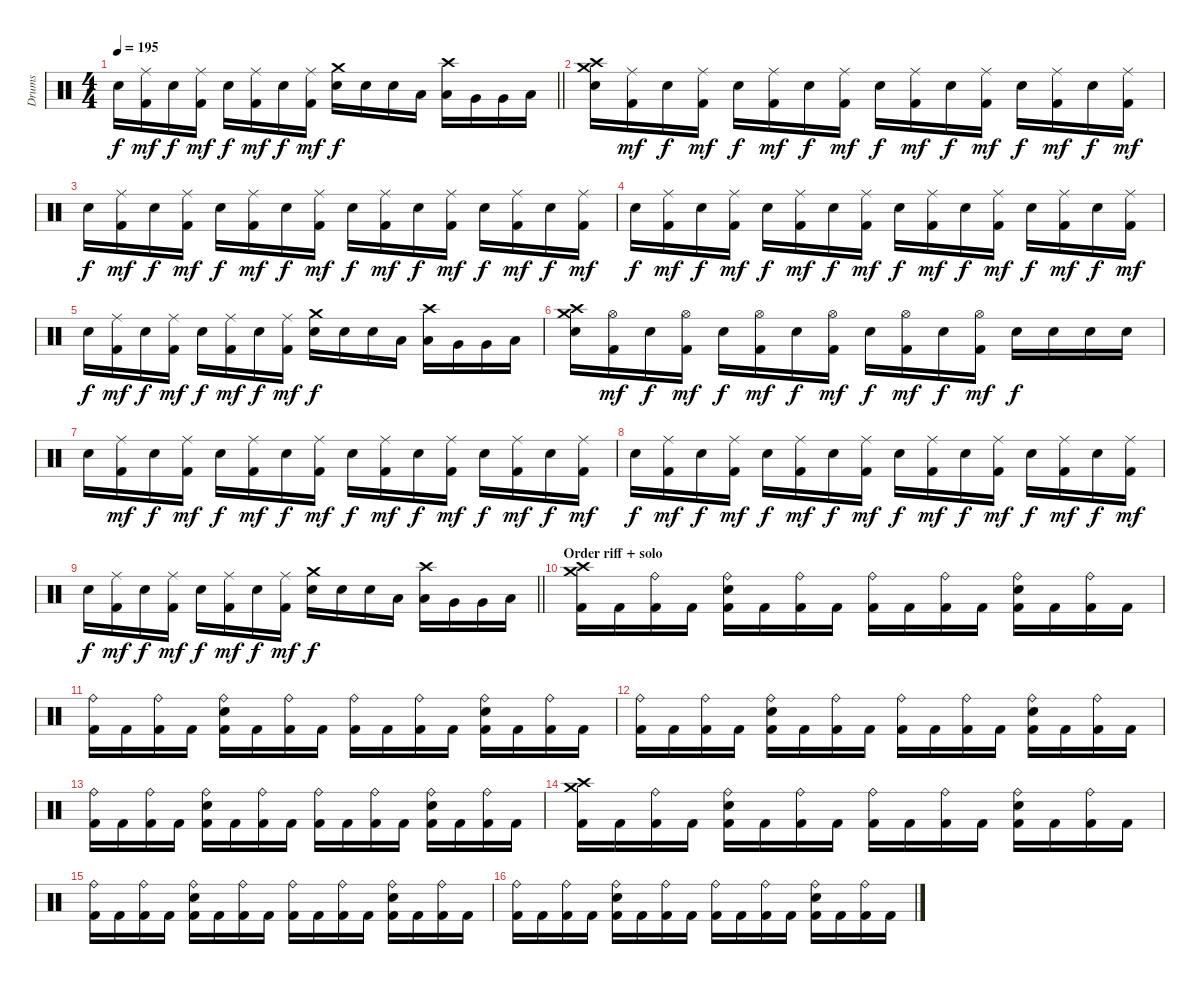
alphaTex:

\track ("Drums" "Drums") {instrument percussion}
\staff {score}
\articulation defaults
\ts (4 4)
\tempo 195
\clef neutral
\barLineRight lightlight
\ks c "Snare (hit) 2".16{dy f}
("Ride (middle)" "Kick (hit) 2").16{dy mf} "Snare (hit) 2".16{dy f} ("Ride (middle)" "Kick (hit) 2").16{dy mf} "Snare (hit) 2".16{dy f} ("Ride (middle)" "Kick (hit) 2").16{dy mf} "Snare (hit) 2".16{dy f} ("Ride (middle)" "Kick (hit) 2").16{dy mf} ("Crash medium (hit)" "Snare (hit) 2").16{dy f} "Snare (hit) 2".16 "Snare (hit) 2".16 "Low Tom (hit)".16 ("Crash high (hit)" "Low Tom (hit)").16 "Very Low Tom (hit)".16 "Very Low Tom (hit)".16 "Low Floor Tom (hit)".16 |
("Crash medium (hit)" "Crash high (hit)" "Snare (hit) 2").16 ("Ride (middle)" "Kick (hit) 2").16{dy mf} "Snare (hit) 2".16{dy f} ("Ride (middle)" "Kick (hit) 2").16{dy mf} "Snare (hit) 2".16{dy f} ("Ride (middle)" "Kick (hit) 2").16{dy mf} "Snare (hit) 2".16{dy f} ("Ride (middle)" "Kick (hit) 2").16{dy mf} "Snare (hit) 2".16{dy f} ("Ride (middle)" "Kick (hit) 2").16{dy mf} "Snare (hit) 2".16{dy f} ("Ride (middle)" "Kick (hit) 2").16{dy mf} "Snare (hit) 2".16{dy f} ("Ride (middle)" "Kick (hit) 2").16{dy mf} "Snare (hit) 2".16{dy f} ("Ride (middle)" "Kick (hit) 2").16{dy mf} |
"Snare (hit) 2".16{dy f} ("Ride (middle)" "Kick (hit) 2").16{dy mf} "Snare (hit) 2".16{dy f} ("Ride (middle)" "Kick (hit) 2").16{dy mf} "Snare (hit) 2".16{dy f} ("Ride (middle)" "Kick (hit) 2").16{dy mf} "Snare (hit) 2".16{dy f} ("Ride (middle)" "Kick (hit) 2").16{dy mf} "Snare (hit) 2".16{dy f} ("Ride (middle)" "Kick (hit) 2").16{dy mf} "Snare (hit) 2".16{dy f} ("Ride (middle)" "Kick (hit) 2").16{dy mf} "Snare (hit) 2".16{dy f} ("Ride (middle)" "Kick (hit) 2").16{dy mf} "Snare (hit) 2".16{dy f} ("Ride (middle)" "Kick (hit) 2").16{dy mf} |
"Snare (hit) 2".16{dy f} ("Ride (middle)" "Kick (hit) 2").16{dy mf} "Snare (hit) 2".16{dy f} ("Ride (middle)" "Kick (hit) 2").16{dy mf} "Snare (hit) 2".16{dy f} ("Ride (middle)" "Kick (hit) 2").16{dy mf} "Snare (hit) 2".16{dy f} ("Ride (middle)" "Kick (hit) 2").16{dy mf} "Snare (hit) 2".16{dy f} ("Ride (middle)" "Kick (hit) 2").16{dy mf} "Snare (hit) 2".16{dy f} ("Ride (middle)" "Kick (hit) 2").16{dy mf} "Snare (hit) 2".16{dy f} ("Ride (middle)" "Kick (hit) 2").16{dy mf} "Snare (hit) 2".16{dy f} ("Ride (middle)" "Kick (hit) 2").16{dy mf} |
"Snare (hit) 2".16{dy f} ("Ride (middle)" "Kick (hit) 2").16{dy mf} "Snare (hit) 2".16{dy f} ("Ride (middle)" "Kick (hit) 2").16{dy mf} "Snare (hit) 2".16{dy f} ("Ride (middle)" "Kick (hit) 2").16{dy mf} "Snare (hit) 2".16{dy f} ("Ride (middle)" "Kick (hit) 2").16{dy mf} ("Crash medium (hit)" "Snare (hit) 2").16{dy f} "Snare (hit) 2".16 "Snare (hit) 2".16 "Low Tom (hit)".16 ("Crash high (hit)" "Low Tom (hit)").16 "Very Low Tom (hit)".16 "Very Low Tom (hit)".16 "Low Floor Tom (hit)".16 |
("Crash medium (hit)" "Crash high (hit)" "Snare (hit) 2").16 ("Hi-Hat (open)" "Kick (hit) 2").16{dy mf} "Snare (hit) 2".16{dy f} ("Hi-Hat (open)" "Kick (hit) 2").16{dy mf} "Snare (hit) 2".16{dy f} ("Hi-Hat (open)" "Kick (hit) 2").16{dy mf} "Snare (hit) 2".16{dy f} ("Hi-Hat (open)" "Kick (hit) 2").16{dy mf} "Snare (hit) 2".16{dy f} ("Hi-Hat (open)" "Kick (hit) 2").16{dy mf} "Snare (hit) 2".16{dy f} ("Hi-Hat (open)" "Kick (hit) 2").16{dy mf} "Snare (hit) 2".16{dy f} "Snare (hit) 2".16 "Snare (hit) 2".16 "Snare (hit) 2".16 |
"Snare (hit) 2".16 ("Ride (middle)" "Kick (hit) 2").16{dy mf} "Snare (hit) 2".16{dy f} ("Ride (middle)" "Kick (hit) 2").16{dy mf} "Snare (hit) 2".16{dy f} ("Ride (middle)" "Kick (hit) 2").16{dy mf} "Snare (hit) 2".16{dy f} ("Ride (middle)" "Kick (hit) 2").16{dy mf} "Snare (hit) 2".16{dy f} ("Ride (middle)" "Kick (hit) 2").16{dy mf} "Snare (hit) 2".16{dy f} ("Ride (middle)" "Kick (hit) 2").16{dy mf} "Snare (hit) 2".16{dy f} ("Ride (middle)" "Kick (hit) 2").16{dy mf} "Snare (hit) 2".16{dy f} ("Ride (middle)" "Kick (hit) 2").16{dy mf} |
"Snare (hit) 2".16{dy f} ("Ride (middle)" "Kick (hit) 2").16{dy mf} "Snare (hit) 2".16{dy f} ("Ride (middle)" "Kick (hit) 2").16{dy mf} "Snare (hit) 2".16{dy f} ("Ride (middle)" "Kick (hit) 2").16{dy mf} "Snare (hit) 2".16{dy f} ("Ride (middle)" "Kick (hit) 2").16{dy mf} "Snare (hit) 2".16{dy f} ("Ride (middle)" "Kick (hit) 2").16{dy mf} "Snare (hit) 2".16{dy f} ("Ride (middle)" "Kick (hit) 2").16{dy mf} "Snare (hit) 2".16{dy f} ("Ride (middle)" "Kick (hit) 2").16{dy mf} "Snare (hit) 2".16{dy f} ("Ride (middle)" "Kick (hit) 2").16{dy mf} |
\barLineRight lightlight "Snare (hit) 2".16{dy f}
("Ride (middle)" "Kick (hit) 2").16{dy mf} "Snare (hit) 2".16{dy f} ("Ride (middle)" "Kick (hit) 2").16{dy mf} "Snare (hit) 2".16{dy f} ("Ride (middle)" "Kick (hit) 2").16{dy mf} "Snare (hit) 2".16{dy f} ("Ride (middle)" "Kick (hit) 2").16{dy mf} ("Crash medium (hit)" "Snare (hit) 2").16{dy f} "Snare (hit) 2".16 "Snare (hit) 2".16 "Low Tom (hit)".16 ("Crash high (hit)" "Low Tom (hit)").16 "Very Low Tom (hit)".16 "Very Low Tom (hit)".16 "Low Floor Tom (hit)".16 |
\section ("" "Order riff + solo")
("Crash high (hit)" "Crash medium (hit)" "Kick (hit) 2").16 "Kick (hit) 2".16 ("Ride (bell)" "Kick (hit) 2").16 "Kick (hit) 2".16 ("Ride (bell)" "Snare (hit) 2" "Kick (hit) 2").16 "Kick (hit) 2".16 ("Ride (bell)" "Kick (hit) 2").16 "Kick (hit) 2".16 ("Ride (bell)" "Kick (hit) 2").16 "Kick (hit) 2".16 ("Ride (bell)" "Kick (hit) 2").16 "Kick (hit) 2".16 ("Ride (bell)" "Snare (hit) 2" "Kick (hit) 2").16 "Kick (hit) 2".16 ("Ride (bell)" "Kick (hit) 2").16 "Kick (hit) 2".16 |
("Ride (bell)" "Kick (hit) 2").16 "Kick (hit) 2".16 ("Ride (bell)" "Kick (hit) 2").16 "Kick (hit) 2".16 ("Ride (bell)" "Snare (hit) 2" "Kick (hit) 2").16 "Kick (hit) 2".16 ("Ride (bell)" "Kick (hit) 2").16 "Kick (hit) 2".16 ("Ride (bell)" "Kick (hit) 2").16 "Kick (hit) 2".16 ("Ride (bell)" "Kick (hit) 2").16 "Kick (hit) 2".16 ("Ride (bell)" "Snare (hit) 2" "Kick (hit) 2").16 "Kick (hit) 2".16 ("Ride (bell)" "Kick (hit) 2").16 "Kick (hit) 2".16 |
("Ride (bell)" "Kick (hit) 2").16 "Kick (hit) 2".16 ("Ride (bell)" "Kick (hit) 2").16 "Kick (hit) 2".16 ("Ride (bell)" "Snare (hit) 2" "Kick (hit) 2").16 "Kick (hit) 2".16 ("Ride (bell)" "Kick (hit) 2").16 "Kick (hit) 2".16 ("Ride (bell)" "Kick (hit) 2").16 "Kick (hit) 2".16 ("Ride (bell)" "Kick (hit) 2").16 "Kick (hit) 2".16 ("Ride (bell)" "Snare (hit) 2" "Kick (hit) 2").16 "Kick (hit) 2".16 ("Ride (bell)" "Kick (hit) 2").16 "Kick (hit) 2".16 |
("Ride (bell)" "Kick (hit) 2").16 "Kick (hit) 2".16 ("Ride (bell)" "Kick (hit) 2").16 "Kick (hit) 2".16 ("Ride (bell)" "Snare (hit) 2" "Kick (hit) 2").16 "Kick (hit) 2".16 ("Ride (bell)" "Kick (hit) 2").16 "Kick (hit) 2".16 ("Ride (bell)" "Kick (hit) 2").16 "Kick (hit) 2".16 ("Ride (bell)" "Kick (hit) 2").16 "Kick (hit) 2".16 ("Ride (bell)" "Snare (hit) 2" "Kick (hit) 2").16 "Kick (hit) 2".16 ("Ride (bell)" "Kick (hit) 2").16 "Kick (hit) 2".16 |
("Crash high (hit)" "Crash medium (hit)" "Kick (hit) 2").16 "Kick (hit) 2".16 ("Ride (bell)" "Kick (hit) 2").16 "Kick (hit) 2".16 ("Ride (bell)" "Snare (hit) 2" "Kick (hit) 2").16 "Kick (hit) 2".16 ("Ride (bell)" "Kick (hit) 2").16 "Kick (hit) 2".16 ("Ride (bell)" "Kick (hit) 2").16 "Kick (hit) 2".16 ("Ride (bell)" "Kick (hit) 2").16 "Kick (hit) 2".16 ("Ride (bell)" "Snare (hit) 2" "Kick (hit) 2").16 "Kick (hit) 2".16 ("Ride (bell)" "Kick (hit) 2").16 "Kick (hit) 2".16 |
("Ride (bell)" "Kick (hit) 2").16 "Kick (hit) 2".16 ("Ride (bell)" "Kick (hit) 2").16 "Kick (hit) 2".16 ("Ride (bell)" "Snare (hit) 2" "Kick (hit) 2").16 "Kick (hit) 2".16 ("Ride (bell)" "Kick (hit) 2").16 "Kick (hit) 2".16 ("Ride (bell)" "Kick (hit) 2").16 "Kick (hit) 2".16 ("Ride (bell)" "Kick (hit) 2").16 "Kick (hit) 2".16 ("Ride (bell)" "Snare (hit) 2" "Kick (hit) 2").16 "Kick (hit) 2".16 ("Ride (bell)" "Kick (hit) 2").16 "Kick (hit) 2".16 |
("Ride (bell)" "Kick (hit) 2").16 "Kick (hit) 2".16 ("Ride (bell)" "Kick (hit) 2").16 "Kick (hit) 2".16 ("Ride (bell)" "Snare (hit) 2" "Kick (hit) 2").16 "Kick (hit) 2".16 ("Ride (bell)" "Kick (hit) 2").16 "Kick (hit) 2".16 ("Ride (bell)" "Kick (hit) 2").16 "Kick (hit) 2".16 ("Ride (bell)" "Kick (hit) 2").16 "Kick (hit) 2".16 ("Ride (bell)" "Snare (hit) 2" "Kick (hit) 2").16 "Kick (hit) 2".16 ("Ride (bell)" "Kick (hit) 2").16 "Kick (hit) 2".16
